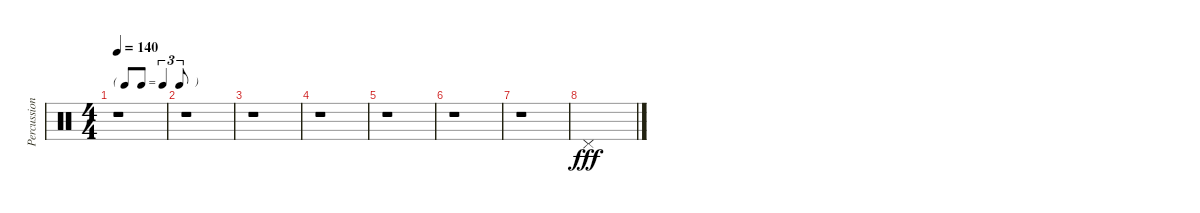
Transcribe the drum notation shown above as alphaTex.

\track ("Percussions" "Percussion") {instrument percussion}
\staff {score}
\articulation defaults
\ts (4 4)
\tf triplet8th
\tempo 140
\clef neutral
\ks c
r.1{dy f} |
r.1 |
r.1 |
r.1 |
r.1 |
r.1 |
r.1 |
"Pedal Hi-Hat (hit)".1{dy fff}
